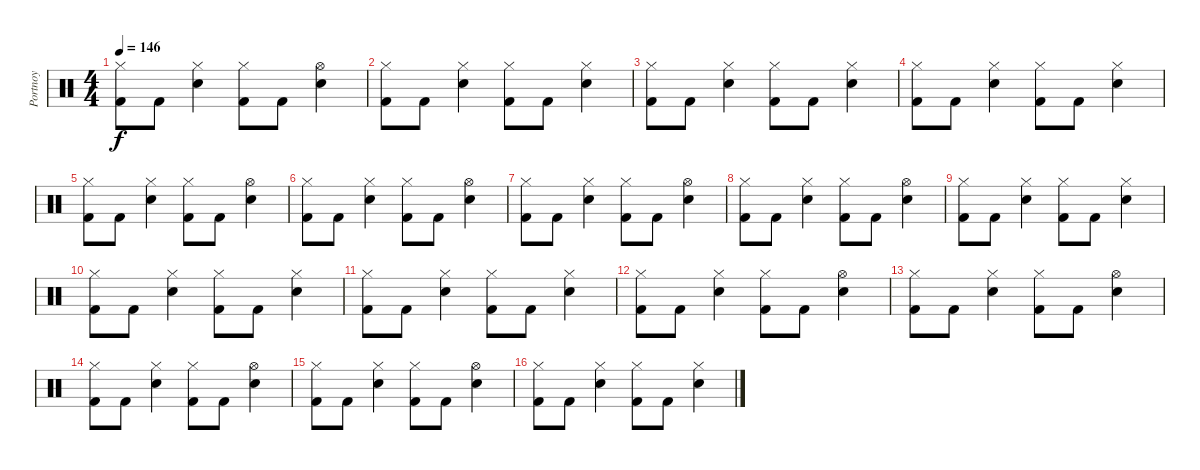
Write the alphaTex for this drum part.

\track ("Portnoy" "Portnoy") {instrument percussion}
\staff {score}
\articulation defaults
\ts (4 4)
\tempo 146
\clef neutral
\ks c
("Hi-Hat (closed)" "Kick (hit) 2").8{dy f} "Kick (hit) 2".8 ("Hi-Hat (closed)" "Electric Snare (hit)").4 ("Hi-Hat (closed)" "Kick (hit) 2").8 "Kick (hit) 2".8 ("Hi-Hat (open)" "Electric Snare (hit)").4 |
("Hi-Hat (closed)" "Kick (hit) 2").8 "Kick (hit) 2".8 ("Hi-Hat (closed)" "Electric Snare (hit)").4 ("Hi-Hat (closed)" "Kick (hit) 2").8 "Kick (hit) 2".8 ("Hi-Hat (closed)" "Electric Snare (hit)").4 |
("Hi-Hat (closed)" "Kick (hit) 2").8 "Kick (hit) 2".8 ("Hi-Hat (closed)" "Electric Snare (hit)").4 ("Hi-Hat (closed)" "Kick (hit) 2").8 "Kick (hit) 2".8 ("Hi-Hat (closed)" "Electric Snare (hit)").4 |
("Hi-Hat (closed)" "Kick (hit) 2").8 "Kick (hit) 2".8 ("Hi-Hat (closed)" "Electric Snare (hit)").4 ("Hi-Hat (closed)" "Kick (hit) 2").8 "Kick (hit) 2".8 ("Hi-Hat (closed)" "Electric Snare (hit)").4 |
("Hi-Hat (closed)" "Kick (hit) 2").8 "Kick (hit) 2".8 ("Hi-Hat (closed)" "Electric Snare (hit)").4 ("Hi-Hat (closed)" "Kick (hit) 2").8 "Kick (hit) 2".8 ("Hi-Hat (open)" "Electric Snare (hit)").4 |
("Hi-Hat (closed)" "Kick (hit) 2").8 "Kick (hit) 2".8 ("Hi-Hat (closed)" "Electric Snare (hit)").4 ("Hi-Hat (closed)" "Kick (hit) 2").8 "Kick (hit) 2".8 ("Hi-Hat (open)" "Electric Snare (hit)").4 |
("Hi-Hat (closed)" "Kick (hit) 2").8 "Kick (hit) 2".8 ("Hi-Hat (closed)" "Electric Snare (hit)").4 ("Hi-Hat (closed)" "Kick (hit) 2").8 "Kick (hit) 2".8 ("Hi-Hat (open)" "Electric Snare (hit)").4 |
("Hi-Hat (closed)" "Kick (hit) 2").8 "Kick (hit) 2".8 ("Hi-Hat (closed)" "Electric Snare (hit)").4 ("Hi-Hat (closed)" "Kick (hit) 2").8 "Kick (hit) 2".8 ("Hi-Hat (open)" "Electric Snare (hit)").4 |
("Hi-Hat (closed)" "Kick (hit) 2").8 "Kick (hit) 2".8 ("Hi-Hat (closed)" "Electric Snare (hit)").4 ("Hi-Hat (closed)" "Kick (hit) 2").8 "Kick (hit) 2".8 ("Hi-Hat (closed)" "Electric Snare (hit)").4 |
("Hi-Hat (closed)" "Kick (hit) 2").8 "Kick (hit) 2".8 ("Hi-Hat (closed)" "Electric Snare (hit)").4 ("Hi-Hat (closed)" "Kick (hit) 2").8 "Kick (hit) 2".8 ("Hi-Hat (closed)" "Electric Snare (hit)").4 |
("Hi-Hat (closed)" "Kick (hit) 2").8 "Kick (hit) 2".8 ("Hi-Hat (closed)" "Electric Snare (hit)").4 ("Hi-Hat (closed)" "Kick (hit) 2").8 "Kick (hit) 2".8 ("Hi-Hat (closed)" "Electric Snare (hit)").4 |
("Hi-Hat (closed)" "Kick (hit) 2").8 "Kick (hit) 2".8 ("Hi-Hat (closed)" "Electric Snare (hit)").4 ("Hi-Hat (closed)" "Kick (hit) 2").8 "Kick (hit) 2".8 ("Hi-Hat (open)" "Electric Snare (hit)").4 |
("Hi-Hat (closed)" "Kick (hit) 2").8 "Kick (hit) 2".8 ("Hi-Hat (closed)" "Electric Snare (hit)").4 ("Hi-Hat (closed)" "Kick (hit) 2").8 "Kick (hit) 2".8 ("Hi-Hat (open)" "Electric Snare (hit)").4 |
("Hi-Hat (closed)" "Kick (hit) 2").8 "Kick (hit) 2".8 ("Hi-Hat (closed)" "Electric Snare (hit)").4 ("Hi-Hat (closed)" "Kick (hit) 2").8 "Kick (hit) 2".8 ("Hi-Hat (open)" "Electric Snare (hit)").4 |
("Hi-Hat (closed)" "Kick (hit) 2").8 "Kick (hit) 2".8 ("Hi-Hat (closed)" "Electric Snare (hit)").4 ("Hi-Hat (closed)" "Kick (hit) 2").8 "Kick (hit) 2".8 ("Hi-Hat (open)" "Electric Snare (hit)").4 |
("Hi-Hat (closed)" "Kick (hit) 2").8 "Kick (hit) 2".8 ("Hi-Hat (closed)" "Electric Snare (hit)").4 ("Hi-Hat (closed)" "Kick (hit) 2").8 "Kick (hit) 2".8 ("Hi-Hat (closed)" "Electric Snare (hit)").4
